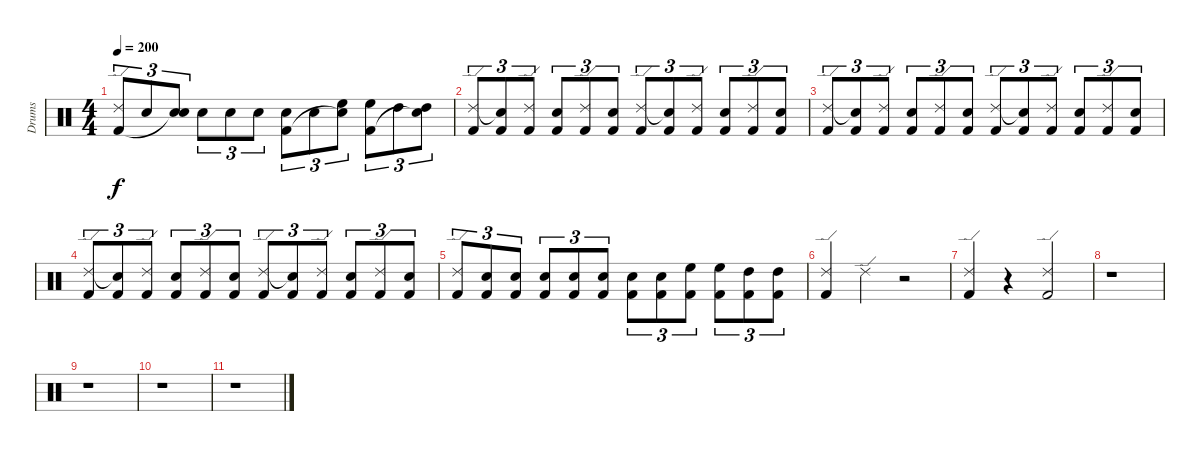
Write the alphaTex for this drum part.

\track ("Drums" "Drums") {instrument percussion}
\staff {score}
\articulation defaults
\ts (4 4)
\tempo 200
\clef neutral
\ks c
("Ride (edge) 2" "Kick (hit) 2").8{tu (3 2) dy f} "Snare (hit) 2".8{tu (3 2)} ("Snare (hit) 2" "Snare (hit)"{t}).8{tu (3 2)} "Snare (hit) 2".8{tu (3 2)} "Snare (hit) 2".8{tu (3 2)} "Snare (hit) 2".8{tu (3 2)} ("Snare (hit) 2" "Kick (hit) 2").8{tu (3 2)} "Snare (hit) 2".8{tu (3 2)} ("High Floor Tom (hit)" "Snare (hit)"{t}).8{tu (3 2)} ("High Floor Tom (hit)" "Kick (hit) 2").8{tu (3 2)} "High Tom (hit)".8{tu (3 2)} ("High Tom (hit)" "Snare (hit)"{t}).8{tu (3 2)} |
("Ride (edge) 2" "Kick (hit) 2").8{tu (3 2)} ("Snare (hit)"{t} "Kick (hit) 2").8{tu (3 2)} ("Ride (edge) 2" "Kick (hit) 2").8{tu (3 2)} ("Snare (hit) 2" "Kick (hit) 2").8{tu (3 2)} ("Ride (edge) 2" "Kick (hit) 2").8{tu (3 2)} ("Snare (hit) 2" "Kick (hit) 2").8{tu (3 2)} ("Ride (edge) 2" "Kick (hit) 2").8{tu (3 2)} ("Snare (hit)"{t} "Kick (hit) 2").8{tu (3 2)} ("Ride (edge) 2" "Kick (hit) 2").8{tu (3 2)} ("Snare (hit) 2" "Kick (hit) 2").8{tu (3 2)} ("Ride (edge) 2" "Kick (hit) 2").8{tu (3 2)} ("Snare (hit) 2" "Kick (hit) 2").8{tu (3 2)} |
("Ride (edge) 2" "Kick (hit) 2").8{tu (3 2)} ("Snare (hit)"{t} "Kick (hit) 2").8{tu (3 2)} ("Ride (edge) 2" "Kick (hit) 2").8{tu (3 2)} ("Snare (hit) 2" "Kick (hit) 2").8{tu (3 2)} ("Ride (edge) 2" "Kick (hit) 2").8{tu (3 2)} ("Snare (hit) 2" "Kick (hit) 2").8{tu (3 2)} ("Ride (edge) 2" "Kick (hit) 2").8{tu (3 2)} ("Snare (hit)"{t} "Kick (hit) 2").8{tu (3 2)} ("Ride (edge) 2" "Kick (hit) 2").8{tu (3 2)} ("Snare (hit) 2" "Kick (hit) 2").8{tu (3 2)} ("Ride (edge) 2" "Kick (hit) 2").8{tu (3 2)} ("Snare (hit) 2" "Kick (hit) 2").8{tu (3 2)} |
("Ride (edge) 2" "Kick (hit) 2").8{tu (3 2)} ("Snare (hit)"{t} "Kick (hit) 2").8{tu (3 2)} ("Ride (edge) 2" "Kick (hit) 2").8{tu (3 2)} ("Snare (hit) 2" "Kick (hit) 2").8{tu (3 2)} ("Ride (edge) 2" "Kick (hit) 2").8{tu (3 2)} ("Snare (hit) 2" "Kick (hit) 2").8{tu (3 2)} ("Ride (edge) 2" "Kick (hit) 2").8{tu (3 2)} ("Snare (hit)"{t} "Kick (hit) 2").8{tu (3 2)} ("Ride (edge) 2" "Kick (hit) 2").8{tu (3 2)} ("Snare (hit) 2" "Kick (hit) 2").8{tu (3 2)} ("Ride (edge) 2" "Kick (hit) 2").8{tu (3 2)} ("Snare (hit) 2" "Kick (hit) 2").8{tu (3 2)} |
("Ride (edge) 2" "Kick (hit) 2").8{tu (3 2)} ("Snare (hit) 2" "Kick (hit) 2").8{tu (3 2)} ("Snare (hit) 2" "Kick (hit) 2").8{tu (3 2)} ("Snare (hit) 2" "Kick (hit) 2").8{tu (3 2)} ("Snare (hit) 2" "Kick (hit) 2").8{tu (3 2)} ("Snare (hit) 2" "Kick (hit) 2").8{tu (3 2)} ("Snare (hit) 2" "Kick (hit) 2").8{tu (3 2)} ("Snare (hit) 2" "Kick (hit) 2").8{tu (3 2)} ("High Floor Tom (hit)" "Kick (hit) 2").8{tu (3 2)} ("High Floor Tom (hit)" "Kick (hit) 2").8{tu (3 2)} ("High Tom (hit)" "Kick (hit) 2").8{tu (3 2)} ("High Tom (hit)" "Kick (hit) 2").8{tu (3 2)} |
("Ride (edge) 2" "Kick (hit) 2").4 "Ride (edge) 2".4 r.2 |
("Ride (edge) 2" "Kick (hit) 2").4 r.4 ("Ride (edge) 2" "Kick (hit) 2").2 |
r.1 |
r.1 |
r.1 |
r.1
